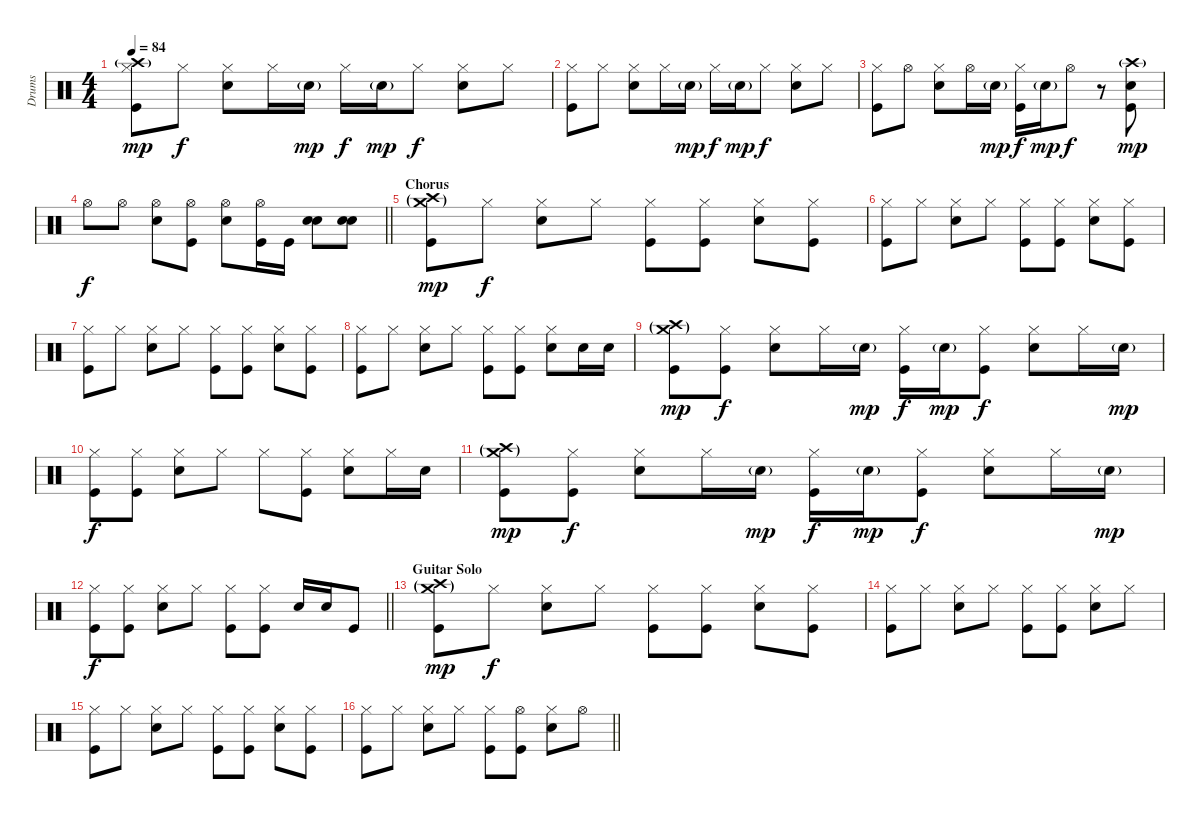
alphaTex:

\track ("Drums" "Drums") {instrument percussion}
\staff {score}
\articulation defaults
\ts (4 4)
\tempo 84
\clef neutral
\ks c
("Hi-Hat (closed)" "Crash high (hit)"{g} "Kick (hit)").8{dy mp} "Hi-Hat (closed)".8{dy f} ("Hi-Hat (closed)" "Snare (hit) 2").8 "Hi-Hat (closed)".16 "Snare (hit) 2"{g}.16{dy mp} "Hi-Hat (closed)".16{dy f} "Snare (hit) 2"{g}.16{dy mp} "Hi-Hat (closed)".8{dy f} ("Hi-Hat (closed)" "Snare (hit) 2").8 "Hi-Hat (closed)".8 |
("Hi-Hat (closed)" "Kick (hit)").8 "Hi-Hat (closed)".8 ("Hi-Hat (closed)" "Snare (hit) 2").8 "Hi-Hat (closed)".16 "Snare (hit) 2"{g}.16{dy mp} "Hi-Hat (closed)".16{dy f} "Snare (hit) 2"{g}.16{dy mp} "Hi-Hat (closed)".8{dy f} ("Hi-Hat (closed)" "Snare (hit) 2").8 "Hi-Hat (closed)".8 |
("Hi-Hat (closed)" "Kick (hit)").8 "Hi-Hat (open)".8 ("Hi-Hat (closed)" "Snare (hit) 2").8 "Hi-Hat (open)".16 "Snare (hit) 2"{g}.16{dy mp} ("Hi-Hat (closed)" "Kick (hit)").16{dy f} "Snare (hit) 2"{g}.16{dy mp} "Hi-Hat (open)".8{dy f} r.8 ("Crash high (hit)"{g} "Snare (hit) 2" "Kick (hit)").8{dy mp} |
\barLineRight lightlight "Hi-Hat (open)".8{dy f} "Hi-Hat (open)".8
("Hi-Hat (open)" "Snare (hit) 2").8 ("Hi-Hat (open)" "Kick (hit)").8 ("Hi-Hat (open)" "Snare (hit) 2").8 ("Hi-Hat (open)" "Kick (hit)").16 "Kick (hit)".16 ("Electric Snare (hit)" "Snare (hit) 2").8 ("Electric Snare (hit)" "Snare (hit) 2").8 |
\section ("" "Chorus")
("Crash high (hit)"{g} "Crash medium (hit)"{g} "Kick (hit)").8{dy mp} "Hi-Hat (closed)".8{dy f} ("Hi-Hat (closed)" "Snare (hit) 2").8 "Hi-Hat (closed)".8 ("Hi-Hat (closed)" "Kick (hit)").8 ("Hi-Hat (closed)" "Kick (hit)").8 ("Hi-Hat (closed)" "Snare (hit) 2").8 ("Hi-Hat (closed)" "Kick (hit)").8 |
("Hi-Hat (closed)" "Kick (hit)").8 "Hi-Hat (closed)".8 ("Hi-Hat (closed)" "Snare (hit) 2").8 "Hi-Hat (closed)".8 ("Hi-Hat (closed)" "Kick (hit)").8 ("Hi-Hat (closed)" "Kick (hit)").8 ("Hi-Hat (closed)" "Snare (hit) 2").8 ("Hi-Hat (closed)" "Kick (hit)").8 |
("Hi-Hat (closed)" "Kick (hit)").8 "Hi-Hat (closed)".8 ("Hi-Hat (closed)" "Snare (hit) 2").8 "Hi-Hat (closed)".8 ("Hi-Hat (closed)" "Kick (hit)").8 ("Hi-Hat (closed)" "Kick (hit)").8 ("Hi-Hat (closed)" "Snare (hit) 2").8 ("Hi-Hat (closed)" "Kick (hit)").8 |
("Hi-Hat (closed)" "Kick (hit)").8 "Hi-Hat (closed)".8 ("Hi-Hat (closed)" "Snare (hit) 2").8 "Hi-Hat (closed)".8 ("Hi-Hat (closed)" "Kick (hit)").8 ("Hi-Hat (closed)" "Kick (hit)").8 ("Hi-Hat (closed)" "Snare (hit) 2").8 "Snare (hit) 2".16 "Snare (hit) 2".16 |
("Crash high (hit)"{g} "Crash medium (hit)"{g} "Kick (hit)").8{dy mp} ("Hi-Hat (closed)" "Kick (hit)").8{dy f} ("Hi-Hat (closed)" "Snare (hit) 2").8 "Hi-Hat (closed)".16 "Snare (hit) 2"{g}.16{dy mp} ("Hi-Hat (closed)" "Kick (hit)").16{dy f} "Snare (hit) 2"{g}.16{dy mp} ("Hi-Hat (closed)" "Kick (hit)").8{dy f} ("Hi-Hat (closed)" "Snare (hit) 2").8 "Hi-Hat (closed)".16 "Snare (hit) 2"{g}.16{dy mp} |
("Hi-Hat (closed)" "Kick (hit)").8{dy f} ("Hi-Hat (closed)" "Kick (hit)").8 ("Hi-Hat (closed)" "Snare (hit) 2").8 "Hi-Hat (closed)".8 "Hi-Hat (closed)".8 ("Hi-Hat (closed)" "Kick (hit)").8 ("Hi-Hat (closed)" "Snare (hit) 2").8 "Hi-Hat (closed)".16 "Snare (hit) 2".16 |
("Crash high (hit)"{g} "Crash medium (hit)"{g} "Kick (hit)").8{dy mp} ("Hi-Hat (closed)" "Kick (hit)").8{dy f} ("Hi-Hat (closed)" "Snare (hit) 2").8 "Hi-Hat (closed)".16 "Snare (hit) 2"{g}.16{dy mp} ("Hi-Hat (closed)" "Kick (hit)").16{dy f} "Snare (hit) 2"{g}.16{dy mp} ("Hi-Hat (closed)" "Kick (hit)").8{dy f} ("Hi-Hat (closed)" "Snare (hit) 2").8 "Hi-Hat (closed)".16 "Snare (hit) 2"{g}.16{dy mp} |
\barLineRight lightlight
("Hi-Hat (closed)" "Kick (hit)").8{dy f} ("Hi-Hat (closed)" "Kick (hit)").8 ("Hi-Hat (closed)" "Snare (hit) 2").8 "Hi-Hat (closed)".8 ("Hi-Hat (closed)" "Kick (hit)").8 ("Hi-Hat (closed)" "Kick (hit)").8 "Snare (hit) 2".16 "Snare (hit) 2".16 "Kick (hit)".8 |
\section ("" "Guitar Solo")
("Crash high (hit)"{g} "Crash medium (hit)"{g} "Kick (hit)").8{dy mp} "Hi-Hat (closed)".8{dy f} ("Hi-Hat (closed)" "Snare (hit) 2").8 "Hi-Hat (closed)".8 ("Hi-Hat (closed)" "Kick (hit)").8 ("Hi-Hat (closed)" "Kick (hit)").8 ("Hi-Hat (closed)" "Snare (hit) 2").8 ("Hi-Hat (closed)" "Kick (hit)").8 |
("Hi-Hat (closed)" "Kick (hit)").8 "Hi-Hat (closed)".8 ("Hi-Hat (closed)" "Snare (hit) 2").8 "Hi-Hat (closed)".8 ("Hi-Hat (closed)" "Kick (hit)").8 ("Hi-Hat (closed)" "Kick (hit)").8 ("Hi-Hat (closed)" "Snare (hit) 2").8 "Hi-Hat (closed)".8 |
("Hi-Hat (closed)" "Kick (hit)").8 "Hi-Hat (closed)".8 ("Hi-Hat (closed)" "Snare (hit) 2").8 "Hi-Hat (closed)".8 ("Hi-Hat (closed)" "Kick (hit)").8 ("Hi-Hat (closed)" "Kick (hit)").8 ("Hi-Hat (closed)" "Snare (hit) 2").8 ("Hi-Hat (closed)" "Kick (hit)").8 |
\barLineRight lightlight
("Hi-Hat (closed)" "Kick (hit)").8 "Hi-Hat (closed)".8 ("Hi-Hat (closed)" "Snare (hit) 2").8 "Hi-Hat (closed)".8 ("Hi-Hat (closed)" "Kick (hit)").8 ("Hi-Hat (open)" "Kick (hit)").8 ("Hi-Hat (closed)" "Snare (hit) 2").8 "Hi-Hat (open)".8
